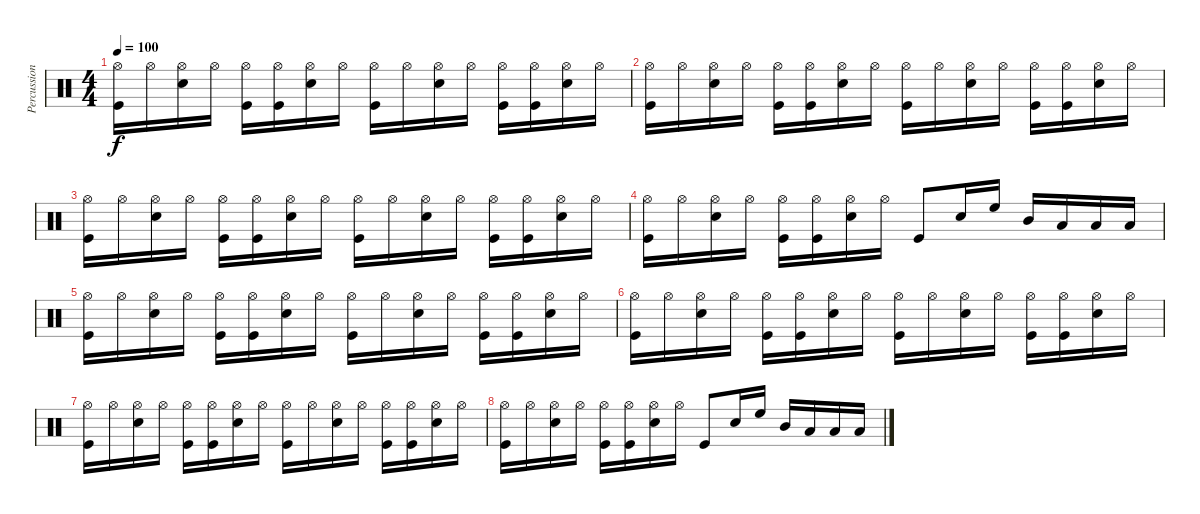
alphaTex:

\track ("Percussions" "Percussion") {instrument percussion}
\staff {score}
\articulation defaults
\ts (4 4)
\tempo 100
\clef neutral
\ks c
("Hi-Hat (open)" "Kick (hit)").16{dy f} "Hi-Hat (open)".16 ("Hi-Hat (open)" "Snare (hit) 2").16 "Hi-Hat (open)".16 ("Hi-Hat (open)" "Kick (hit)").16 ("Hi-Hat (open)" "Kick (hit)").16 ("Hi-Hat (open)" "Snare (hit) 2").16 "Hi-Hat (open)".16 ("Hi-Hat (open)" "Kick (hit)").16 "Hi-Hat (open)".16 ("Hi-Hat (open)" "Snare (hit) 2").16 "Hi-Hat (open)".16 ("Hi-Hat (open)" "Kick (hit)").16 ("Hi-Hat (open)" "Kick (hit)").16 ("Hi-Hat (open)" "Snare (hit) 2").16 "Hi-Hat (open)".16 |
("Hi-Hat (open)" "Kick (hit)").16 "Hi-Hat (open)".16 ("Hi-Hat (open)" "Snare (hit) 2").16 "Hi-Hat (open)".16 ("Hi-Hat (open)" "Kick (hit)").16 ("Hi-Hat (open)" "Kick (hit)").16 ("Hi-Hat (open)" "Snare (hit) 2").16 "Hi-Hat (open)".16 ("Hi-Hat (open)" "Kick (hit)").16 "Hi-Hat (open)".16 ("Hi-Hat (open)" "Snare (hit) 2").16 "Hi-Hat (open)".16 ("Hi-Hat (open)" "Kick (hit)").16 ("Hi-Hat (open)" "Kick (hit)").16 ("Hi-Hat (open)" "Snare (hit) 2").16 "Hi-Hat (open)".16 |
("Hi-Hat (open)" "Kick (hit)").16 "Hi-Hat (open)".16 ("Hi-Hat (open)" "Snare (hit) 2").16 "Hi-Hat (open)".16 ("Hi-Hat (open)" "Kick (hit)").16 ("Hi-Hat (open)" "Kick (hit)").16 ("Hi-Hat (open)" "Snare (hit) 2").16 "Hi-Hat (open)".16 ("Hi-Hat (open)" "Kick (hit)").16 "Hi-Hat (open)".16 ("Hi-Hat (open)" "Snare (hit) 2").16 "Hi-Hat (open)".16 ("Hi-Hat (open)" "Kick (hit)").16 ("Hi-Hat (open)" "Kick (hit)").16 ("Hi-Hat (open)" "Snare (hit) 2").16 "Hi-Hat (open)".16 |
("Hi-Hat (open)" "Kick (hit)").16 "Hi-Hat (open)".16 ("Hi-Hat (open)" "Snare (hit) 2").16 "Hi-Hat (open)".16 ("Hi-Hat (open)" "Kick (hit)").16 ("Hi-Hat (open)" "Kick (hit)").16 ("Hi-Hat (open)" "Snare (hit) 2").16 "Hi-Hat (open)".16 "Kick (hit)".8 "Snare (hit) 2".16 "High Floor Tom (hit)".16 "Mid Tom (hit)".16 "Low Tom (hit)".16 "Low Floor Tom (hit)".16 "Low Tom (hit)".16 |
("Hi-Hat (open)" "Kick (hit)").16 "Hi-Hat (open)".16 ("Hi-Hat (open)" "Snare (hit) 2").16 "Hi-Hat (open)".16 ("Hi-Hat (open)" "Kick (hit)").16 ("Hi-Hat (open)" "Kick (hit)").16 ("Hi-Hat (open)" "Snare (hit) 2").16 "Hi-Hat (open)".16 ("Hi-Hat (open)" "Kick (hit)").16 "Hi-Hat (open)".16 ("Hi-Hat (open)" "Snare (hit) 2").16 "Hi-Hat (open)".16 ("Hi-Hat (open)" "Kick (hit)").16 ("Hi-Hat (open)" "Kick (hit)").16 ("Hi-Hat (open)" "Snare (hit) 2").16 "Hi-Hat (open)".16 |
("Hi-Hat (open)" "Kick (hit)").16 "Hi-Hat (open)".16 ("Hi-Hat (open)" "Snare (hit) 2").16 "Hi-Hat (open)".16 ("Hi-Hat (open)" "Kick (hit)").16 ("Hi-Hat (open)" "Kick (hit)").16 ("Hi-Hat (open)" "Snare (hit) 2").16 "Hi-Hat (open)".16 ("Hi-Hat (open)" "Kick (hit)").16 "Hi-Hat (open)".16 ("Hi-Hat (open)" "Snare (hit) 2").16 "Hi-Hat (open)".16 ("Hi-Hat (open)" "Kick (hit)").16 ("Hi-Hat (open)" "Kick (hit)").16 ("Hi-Hat (open)" "Snare (hit) 2").16 "Hi-Hat (open)".16 |
("Hi-Hat (open)" "Kick (hit)").16 "Hi-Hat (open)".16 ("Hi-Hat (open)" "Snare (hit) 2").16 "Hi-Hat (open)".16 ("Hi-Hat (open)" "Kick (hit)").16 ("Hi-Hat (open)" "Kick (hit)").16 ("Hi-Hat (open)" "Snare (hit) 2").16 "Hi-Hat (open)".16 ("Hi-Hat (open)" "Kick (hit)").16 "Hi-Hat (open)".16 ("Hi-Hat (open)" "Snare (hit) 2").16 "Hi-Hat (open)".16 ("Hi-Hat (open)" "Kick (hit)").16 ("Hi-Hat (open)" "Kick (hit)").16 ("Hi-Hat (open)" "Snare (hit) 2").16 "Hi-Hat (open)".16 |
("Hi-Hat (open)" "Kick (hit)").16 "Hi-Hat (open)".16 ("Hi-Hat (open)" "Snare (hit) 2").16 "Hi-Hat (open)".16 ("Hi-Hat (open)" "Kick (hit)").16 ("Hi-Hat (open)" "Kick (hit)").16 ("Hi-Hat (open)" "Snare (hit) 2").16 "Hi-Hat (open)".16 "Kick (hit)".8 "Snare (hit) 2".16 "High Floor Tom (hit)".16 "Mid Tom (hit)".16 "Low Tom (hit)".16 "Low Floor Tom (hit)".16 "Low Tom (hit)".16
